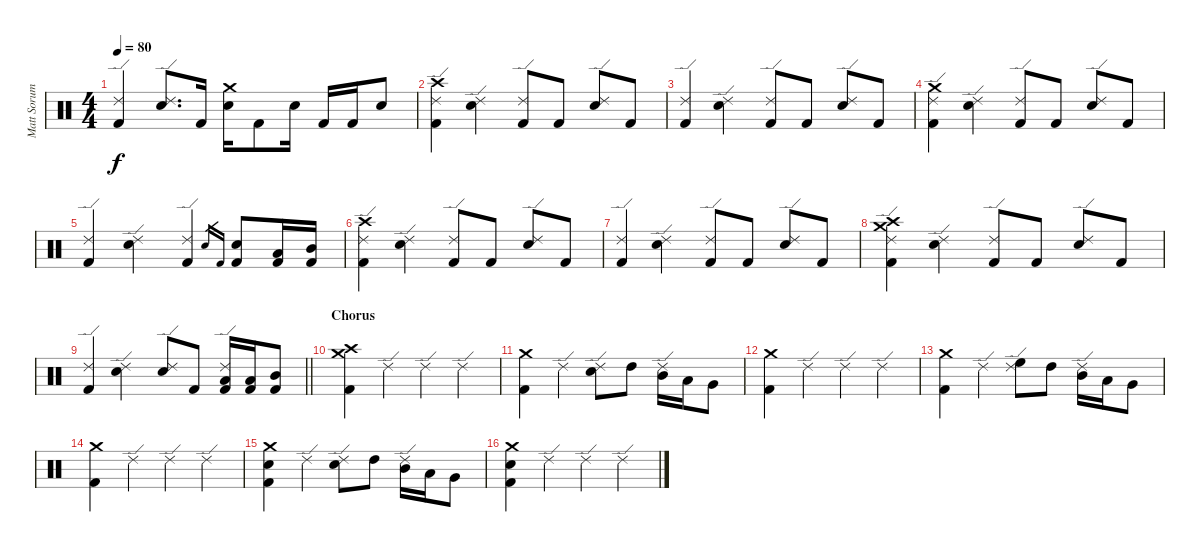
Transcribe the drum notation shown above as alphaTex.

\track ("Matt Sorum" "Matt Sorum") {instrument percussion}
\staff {score}
\articulation defaults
\ts (4 4)
\tempo 80
\clef neutral
\ks c
("Ride (edge) 2" "Kick (hit) 2").4{dy f} ("Electric Snare (hit)" "Ride (edge) 2").8{d} "Kick (hit) 2".16 ("Electric Snare (hit)" "Crash medium (hit)").16 "Kick (hit) 2".8 "Electric Snare (hit)".16 "Kick (hit) 2".16 "Kick (hit) 2".16 "Electric Snare (hit)".8 |
("Ride (edge) 2" "Kick (hit) 2" "Crash high (hit)").4 ("Electric Snare (hit)" "Ride (edge) 2").4 ("Ride (edge) 2" "Kick (hit) 2").8 "Kick (hit) 2".8 ("Electric Snare (hit)" "Ride (edge) 2").8 "Kick (hit) 2".8 |
("Ride (edge) 2" "Kick (hit) 2").4 ("Electric Snare (hit)" "Ride (edge) 2").4 ("Ride (edge) 2" "Kick (hit) 2").8 "Kick (hit) 2".8 ("Electric Snare (hit)" "Ride (edge) 2").8 "Kick (hit) 2".8 |
("Ride (edge) 2" "Kick (hit) 2" "Crash medium (hit)").4 ("Electric Snare (hit)" "Ride (edge) 2").4 ("Ride (edge) 2" "Kick (hit) 2").8 "Kick (hit) 2".8 ("Electric Snare (hit)" "Ride (edge) 2").8 "Kick (hit) 2".8 |
("Ride (edge) 2" "Kick (hit) 2").4 ("Electric Snare (hit)" "Ride (edge) 2").4 ("Ride (edge) 2" "Kick (hit) 2").4 "Electric Snare (hit)".16{gr} "Kick (hit) 2".16{gr} ("Electric Snare (hit)" "Kick (hit) 2").8 ("Low Tom (hit)" "Kick (hit) 2").16 ("Mid Tom (hit)" "Kick (hit) 2").16 |
("Ride (edge) 2" "Kick (hit) 2" "Crash high (hit)").4 ("Electric Snare (hit)" "Ride (edge) 2").4 ("Ride (edge) 2" "Kick (hit) 2").8 "Kick (hit) 2".8 ("Electric Snare (hit)" "Ride (edge) 2").8 "Kick (hit) 2".8 |
("Ride (edge) 2" "Kick (hit) 2").4 ("Electric Snare (hit)" "Ride (edge) 2").4 ("Ride (edge) 2" "Kick (hit) 2").8 "Kick (hit) 2".8 ("Electric Snare (hit)" "Ride (edge) 2").8 "Kick (hit) 2".8 |
("Ride (edge) 2" "Kick (hit) 2" "Crash medium (hit)" "Crash high (hit)").4 ("Electric Snare (hit)" "Ride (edge) 2").4 ("Ride (edge) 2" "Kick (hit) 2").8 "Kick (hit) 2".8 ("Electric Snare (hit)" "Ride (edge) 2").8 "Kick (hit) 2".8 |
\barLineRight lightlight
("Ride (edge) 2" "Kick (hit) 2").4 ("Electric Snare (hit)" "Ride (edge) 2").4 ("Electric Snare (hit)" "Ride (edge) 2").8 "Kick (hit) 2".8 ("Ride (edge) 2" "Low Tom (hit)" "Kick (hit) 2").16 ("Low Tom (hit)" "Kick (hit) 2").16 ("Mid Tom (hit)" "Kick (hit) 2").8 |
\section ("" "Chorus")
("Kick (hit) 2" "Crash medium (hit)" "Crash high (hit)").4 "Ride (edge) 2".4 "Ride (edge) 2".4 "Ride (edge) 2".4 |
("Crash medium (hit)" "Kick (hit) 2").4 "Ride (edge) 2".4 ("Ride (edge) 2" "Electric Snare (hit)").8 "High Tom (hit)".8 ("Ride (edge) 2" "Mid Tom (hit)").16 "Low Tom (hit)".16 "Very Low Tom (hit)".8 |
("Crash medium (hit)" "Kick (hit) 2").4 "Ride (edge) 2".4 "Ride (edge) 2".4 "Ride (edge) 2".4 |
("Crash medium (hit)" "Kick (hit) 2").4 "Ride (edge) 2".4 ("Ride (edge) 2" "High Floor Tom (hit)").8 "High Tom (hit)".8 ("Ride (edge) 2" "Mid Tom (hit)").16 "Low Tom (hit)".16 "Very Low Tom (hit)".8 |
("Crash medium (hit)" "Kick (hit) 2").4 "Ride (edge) 2".4 "Ride (edge) 2".4 "Ride (edge) 2".4 |
("Electric Snare (hit)" "Crash medium (hit)" "Kick (hit) 2").4 "Ride (edge) 2".4 ("Ride (edge) 2" "Electric Snare (hit)").8 "High Tom (hit)".8 ("Ride (edge) 2" "Mid Tom (hit)").16 "Low Tom (hit)".16 "Very Low Tom (hit)".8 |
("Electric Snare (hit)" "Crash medium (hit)" "Kick (hit) 2").4 "Ride (edge) 2".4 "Ride (edge) 2".4 "Ride (edge) 2".4
